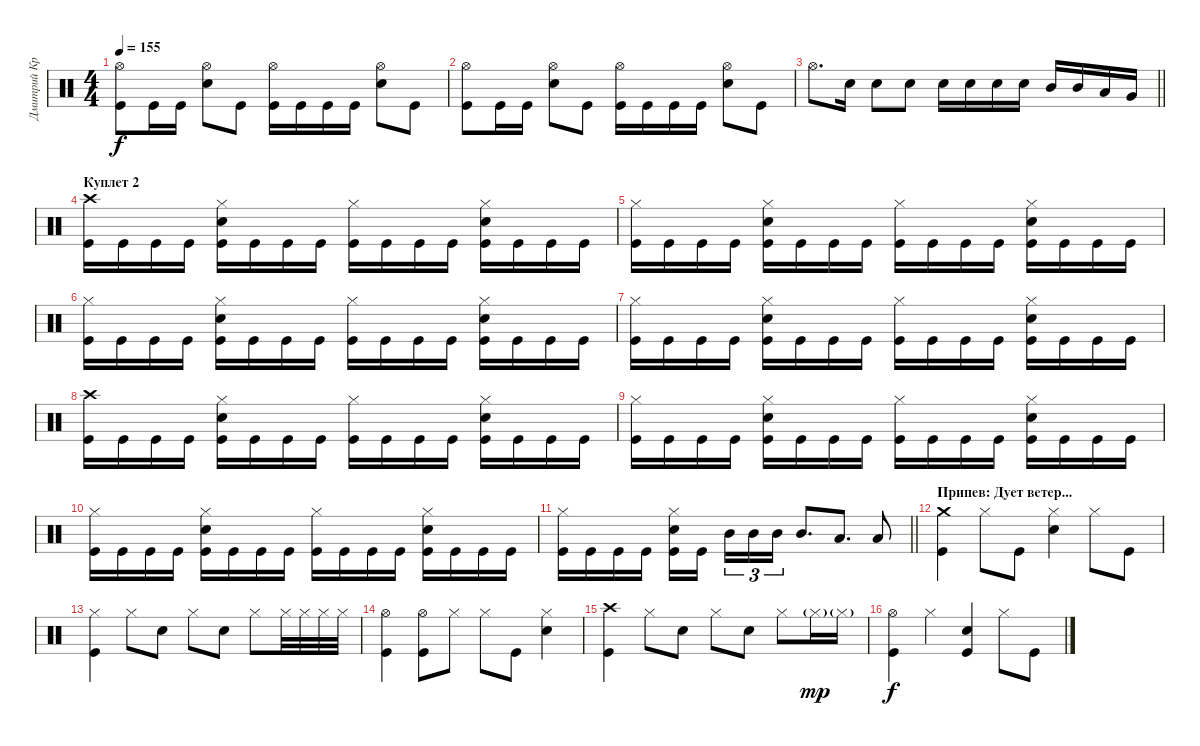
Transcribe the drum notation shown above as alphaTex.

\track ("Дмитрий Кривенков" "Дмитрий Кр") {instrument percussion}
\staff {score}
\articulation defaults
\ts (4 4)
\tempo 155
\clef neutral
\ks c
("Hi-Hat (open)" "Kick (hit)").8{dy f} "Kick (hit)".16 "Kick (hit)".16 ("Hi-Hat (open)" "Snare (hit) 2").8 "Kick (hit)".8 ("Hi-Hat (open)" "Kick (hit)").16 "Kick (hit)".16 "Kick (hit)".16 "Kick (hit)".16 ("Hi-Hat (open)" "Snare (hit) 2").8 "Kick (hit)".8 |
("Hi-Hat (open)" "Kick (hit)").8 "Kick (hit)".16 "Kick (hit)".16 ("Hi-Hat (open)" "Snare (hit) 2").8 "Kick (hit)".8 ("Hi-Hat (open)" "Kick (hit)").16 "Kick (hit)".16 "Kick (hit)".16 "Kick (hit)".16 ("Hi-Hat (open)" "Snare (hit) 2").8 "Kick (hit)".8 |
\barLineRight lightlight "Hi-Hat (open)".8{d} "Snare (hit) 2".16 "Snare (hit) 2".8 "Snare (hit) 2".8 "Snare (hit) 2".16 "Snare (hit) 2".16 "Snare (hit) 2".16 "Snare (hit) 2".16 "Mid Tom (hit)".16 "Mid Tom (hit)".16 "Low Tom (hit)".16 "Very Low Tom (hit)".16
|
\section ("" "Куплет 2")
("Crash high (hit)" "Kick (hit)").16 "Kick (hit)".16 "Kick (hit)".16 "Kick (hit)".16 ("Hi-Hat (closed)" "Snare (hit) 2" "Kick (hit)").16 "Kick (hit)".16 "Kick (hit)".16 "Kick (hit)".16 ("Hi-Hat (closed)" "Kick (hit)").16 "Kick (hit)".16 "Kick (hit)".16 "Kick (hit)".16 ("Hi-Hat (closed)" "Snare (hit) 2" "Kick (hit)").16 "Kick (hit)".16 "Kick (hit)".16 "Kick (hit)".16 |
("Hi-Hat (closed)" "Kick (hit)").16 "Kick (hit)".16 "Kick (hit)".16 "Kick (hit)".16 ("Hi-Hat (closed)" "Snare (hit) 2" "Kick (hit)").16 "Kick (hit)".16 "Kick (hit)".16 "Kick (hit)".16 ("Hi-Hat (closed)" "Kick (hit)").16 "Kick (hit)".16 "Kick (hit)".16 "Kick (hit)".16 ("Hi-Hat (closed)" "Snare (hit) 2" "Kick (hit)").16 "Kick (hit)".16 "Kick (hit)".16 "Kick (hit)".16 |
("Hi-Hat (closed)" "Kick (hit)").16 "Kick (hit)".16 "Kick (hit)".16 "Kick (hit)".16 ("Hi-Hat (closed)" "Snare (hit) 2" "Kick (hit)").16 "Kick (hit)".16 "Kick (hit)".16 "Kick (hit)".16 ("Hi-Hat (closed)" "Kick (hit)").16 "Kick (hit)".16 "Kick (hit)".16 "Kick (hit)".16 ("Hi-Hat (closed)" "Snare (hit) 2" "Kick (hit)").16 "Kick (hit)".16 "Kick (hit)".16 "Kick (hit)".16 |
("Hi-Hat (closed)" "Kick (hit)").16 "Kick (hit)".16 "Kick (hit)".16 "Kick (hit)".16 ("Hi-Hat (closed)" "Snare (hit) 2" "Kick (hit)").16 "Kick (hit)".16 "Kick (hit)".16 "Kick (hit)".16 ("Hi-Hat (closed)" "Kick (hit)").16 "Kick (hit)".16 "Kick (hit)".16 "Kick (hit)".16 ("Hi-Hat (closed)" "Snare (hit) 2" "Kick (hit)").16 "Kick (hit)".16 "Kick (hit)".16 "Kick (hit)".16 |
("Crash high (hit)" "Kick (hit)").16 "Kick (hit)".16 "Kick (hit)".16 "Kick (hit)".16 ("Hi-Hat (closed)" "Snare (hit) 2" "Kick (hit)").16 "Kick (hit)".16 "Kick (hit)".16 "Kick (hit)".16 ("Hi-Hat (closed)" "Kick (hit)").16 "Kick (hit)".16 "Kick (hit)".16 "Kick (hit)".16 ("Hi-Hat (closed)" "Snare (hit) 2" "Kick (hit)").16 "Kick (hit)".16 "Kick (hit)".16 "Kick (hit)".16 |
("Hi-Hat (closed)" "Kick (hit)").16 "Kick (hit)".16 "Kick (hit)".16 "Kick (hit)".16 ("Hi-Hat (closed)" "Snare (hit) 2" "Kick (hit)").16 "Kick (hit)".16 "Kick (hit)".16 "Kick (hit)".16 ("Hi-Hat (closed)" "Kick (hit)").16 "Kick (hit)".16 "Kick (hit)".16 "Kick (hit)".16 ("Hi-Hat (closed)" "Snare (hit) 2" "Kick (hit)").16 "Kick (hit)".16 "Kick (hit)".16 "Kick (hit)".16 |
("Hi-Hat (closed)" "Kick (hit)").16 "Kick (hit)".16 "Kick (hit)".16 "Kick (hit)".16 ("Hi-Hat (closed)" "Snare (hit) 2" "Kick (hit)").16 "Kick (hit)".16 "Kick (hit)".16 "Kick (hit)".16 ("Hi-Hat (closed)" "Kick (hit)").16 "Kick (hit)".16 "Kick (hit)".16 "Kick (hit)".16 ("Hi-Hat (closed)" "Snare (hit) 2" "Kick (hit)").16 "Kick (hit)".16 "Kick (hit)".16 "Kick (hit)".16 |
\barLineRight lightlight
("Hi-Hat (closed)" "Kick (hit)").16 "Kick (hit)".16 "Kick (hit)".16 "Kick (hit)".16 ("Hi-Hat (closed)" "Snare (hit) 2" "Kick (hit)").16 "Kick (hit)".16{beam splitsecondary} "Mid Tom (hit)".16{tu (3 2)} "Mid Tom (hit)".16{tu (3 2)} "Mid Tom (hit)".16{tu (3 2)} "Mid Tom (hit)".8{d} "Low Tom (hit)".8{d} "Low Floor Tom (hit)".8 |
\section ("" "Припев: Дует ветер...")
("Crash medium (hit)" "Kick (hit)").4 "Hi-Hat (closed)".8 "Kick (hit)".8 ("Hi-Hat (closed)" "Snare (hit) 2").4 "Hi-Hat (closed)".8 "Kick (hit)".8 |
("Hi-Hat (closed)" "Kick (hit)").4 "Hi-Hat (closed)".8 "Snare (hit) 2".8 "Hi-Hat (closed)".8 "Snare (hit) 2".8 "Hi-Hat (closed)".8 "Hi-Hat (closed)".32 "Hi-Hat (closed)".32 "Hi-Hat (closed)".32 "Hi-Hat (closed)".32 |
("Hi-Hat (open)" "Kick (hit)").4 ("Hi-Hat (open)" "Kick (hit)").8 "Hi-Hat (closed)".8 "Hi-Hat (closed)".8 "Kick (hit)".8 ("Hi-Hat (closed)" "Snare (hit) 2").4 |
("Crash high (hit)" "Kick (hit)").4 "Hi-Hat (closed)".8 "Snare (hit) 2".8 "Hi-Hat (closed)".8 "Snare (hit) 2".8 "Hi-Hat (closed)".8 "Hi-Hat (closed)"{g}.16{dy mp} "Hi-Hat (closed)"{g}.16 |
("Hi-Hat (open)" "Kick (hit)").4{dy f} "Hi-Hat (closed)".4 ("Snare (hit) 2" "Kick (hit)").4 "Hi-Hat (closed)".8 "Kick (hit)".8
